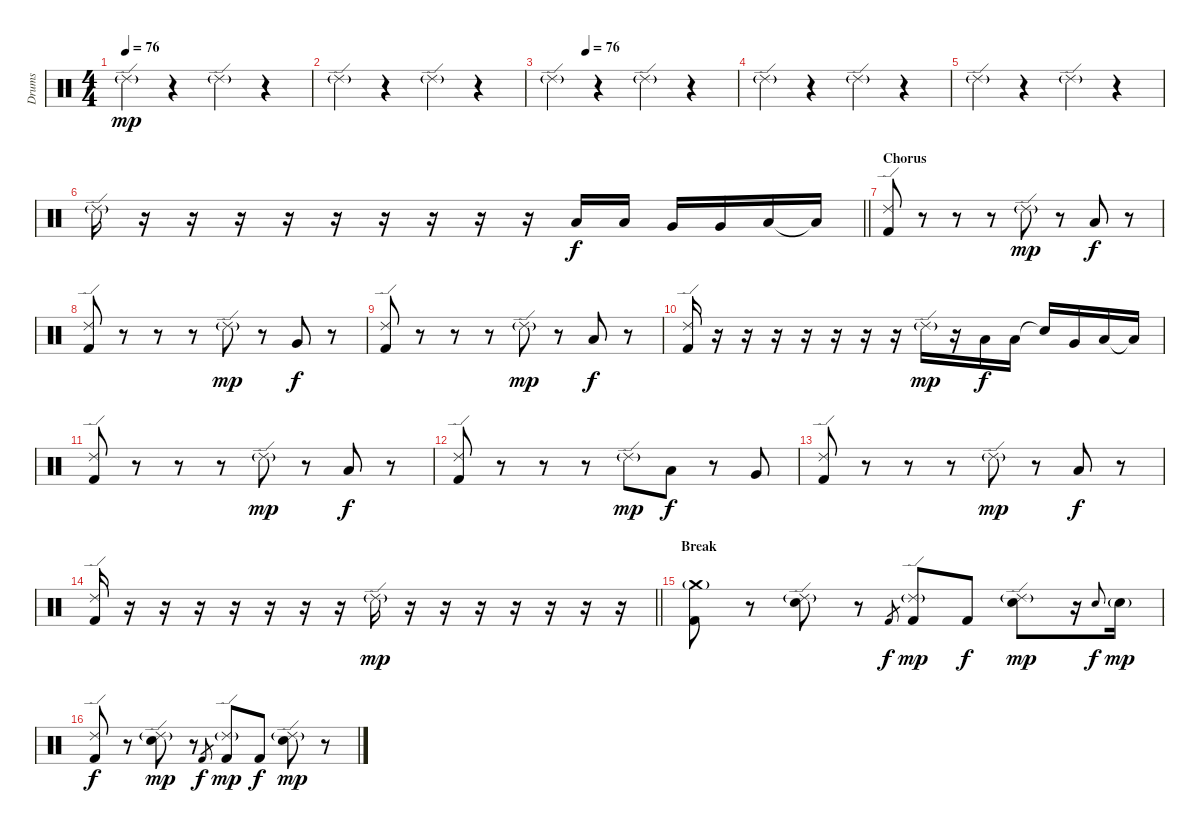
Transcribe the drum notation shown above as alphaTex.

\track ("Drums" "Drums") {instrument percussion}
\staff {score}
\articulation defaults
\ts (4 4)
\tempo 76
\clef neutral
\ks c "Ride (edge) 2"{g}.4{dy mp}
r.4 "Ride (edge) 2"{g}.4 r.4 |
"Ride (edge) 2"{g}.4 r.4 "Ride (edge) 2"{g}.4 r.4 |
\tempo (76 0.1875)
"Ride (edge) 2"{g}.4 r.4 "Ride (edge) 2"{g}.4 r.4 |
"Ride (edge) 2"{g}.4 r.4 "Ride (edge) 2"{g}.4 r.4 |
"Ride (edge) 2"{g}.4 r.4 "Ride (edge) 2"{g}.4 r.4 |
\barLineRight lightlight "Ride (edge) 2"{g}.16
r.16 r.16 r.16 r.16 r.16 r.16 r.16 r.16 r.16 "Low Tom (hit)".16{dy f} "Low Tom (hit)".16 "Very Low Tom (hit)".16 "Very Low Tom (hit)".16 "Low Floor Tom (hit)".16 "Low Floor Tom (hit)"{t}.16 |
\section ("" "Chorus")
("Ride (edge) 2" "Kick (hit) 2").8 r.8 r.8 r.8 "Ride (edge) 2"{g}.8{dy mp} r.8 "Low Tom (hit)".8{dy f} r.8 |
("Ride (edge) 2" "Kick (hit) 2").8 r.8 r.8 r.8 "Ride (edge) 2"{g}.8{dy mp} r.8 "Very Low Tom (hit)".8{dy f} r.8 |
("Ride (edge) 2" "Kick (hit) 2").8 r.8 r.8 r.8 "Ride (edge) 2"{g}.8{dy mp} r.8 "Low Floor Tom (hit)".8{dy f} r.8 |
("Ride (edge) 2" "Kick (hit) 2").16 r.16 r.16 r.16 r.16 r.16 r.16 r.16 "Ride (edge) 2"{g}.16{dy mp} r.16 "Low Tom (hit)".16{dy f} "Low Tom (hit)".16 "Snare (hit)"{t}.16 "Very Low Tom (hit)".16 "Low Floor Tom (hit)".16 "Low Floor Tom (hit)"{t}.16 |
("Ride (edge) 2" "Kick (hit) 2").8 r.8 r.8 r.8 "Ride (edge) 2"{g}.8{dy mp} r.8 "Low Tom (hit)".8{dy f} r.8 |
("Ride (edge) 2" "Kick (hit) 2").8 r.8 r.8 r.8 "Ride (edge) 2"{g}.8{dy mp} "Low Tom (hit)".8{dy f} r.8 "Very Low Tom (hit)".8 |
("Ride (edge) 2" "Kick (hit) 2").8 r.8 r.8 r.8 "Ride (edge) 2"{g}.8{dy mp} r.8 "Low Floor Tom (hit)".8{dy f} r.8 |
\barLineRight lightlight
("Ride (edge) 2" "Kick (hit) 2").16 r.16 r.16 r.16 r.16 r.16 r.16 r.16 "Ride (edge) 2"{g}.16{dy mp} r.16 r.16 r.16 r.16 r.16 r.16 r.16 |
\section ("" "Break")
("Crash medium (hit)"{g} "Kick (hit) 2").8 r.8 ("Ride (edge) 2"{g} "Snare (hit) 2").8 r.8 "Kick (hit) 2".8{gr dy f} ("Ride (edge) 2"{g} "Kick (hit) 2").8{dy mp} "Kick (hit) 2".8{dy f} ("Ride (edge) 2"{g} "Snare (hit) 2").8{dy mp} r.16 "Snare (hit) 2".8{gr onbeat dy f} "Snare (hit) 2"{g}.16{dy mp} |
("Ride (edge) 2" "Kick (hit) 2").8{dy f} r.8 ("Ride (edge) 2"{g} "Snare (hit) 2").8{dy mp} r.8 "Kick (hit) 2".8{gr dy f} ("Ride (edge) 2"{g} "Kick (hit) 2").8{dy mp} "Kick (hit) 2".8{dy f} ("Ride (edge) 2"{g} "Snare (hit) 2").8{dy mp} r.8
